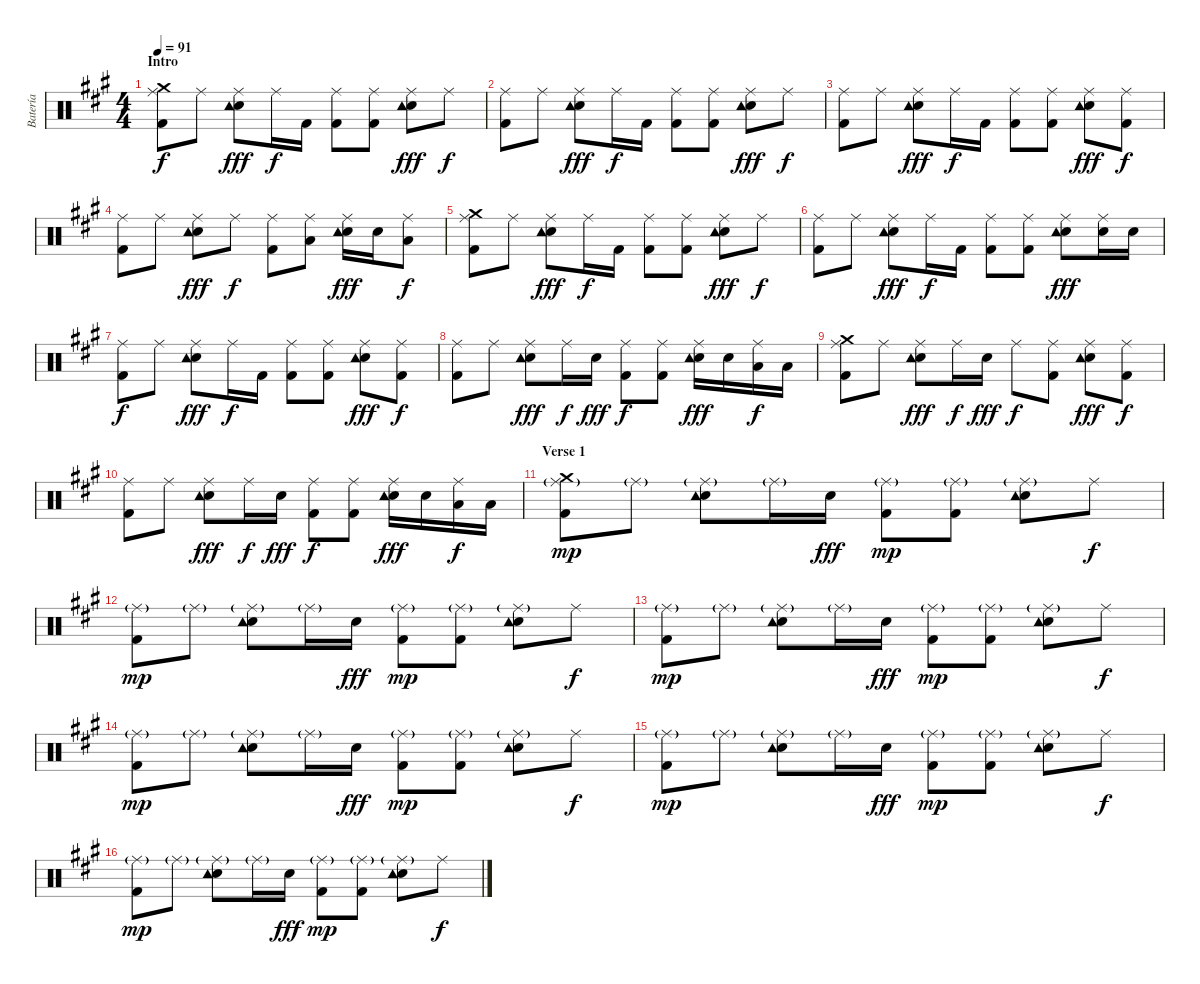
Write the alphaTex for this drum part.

\track ("Batería" "Batería") {instrument percussion}
\staff {score}
\articulation defaults
\ts (4 4)
\section ("" "Intro")
\tempo 91
\clef neutral
\ks a
("Kick (hit) 2" "Ride (middle)" "Crash medium (hit)").8{dy f} "Ride (middle)".8 ("Electric Snare (hit)" "Ride (middle)" "Tambourine (hit)").8{dy fff} "Ride (middle)".16{dy f} "Kick (hit) 2".16 ("Kick (hit) 2" "Ride (middle)").8 ("Kick (hit) 2" "Ride (middle)").8 ("Electric Snare (hit)" "Ride (middle)" "Tambourine (hit)").8{dy fff} "Ride (middle)".8{dy f} |
("Kick (hit) 2" "Ride (middle)").8 "Ride (middle)".8 ("Electric Snare (hit)" "Ride (middle)" "Tambourine (hit)").8{dy fff} "Ride (middle)".16{dy f} "Kick (hit) 2".16 ("Kick (hit) 2" "Ride (middle)").8 ("Kick (hit) 2" "Ride (middle)").8 ("Electric Snare (hit)" "Ride (middle)" "Tambourine (hit)").8{dy fff} "Ride (middle)".8{dy f} |
("Kick (hit) 2" "Ride (middle)").8 "Ride (middle)".8 ("Electric Snare (hit)" "Ride (middle)" "Tambourine (hit)").8{dy fff} "Ride (middle)".16{dy f} "Kick (hit) 2".16 ("Kick (hit) 2" "Ride (middle)").8 ("Kick (hit) 2" "Ride (middle)").8 ("Electric Snare (hit)" "Ride (middle)" "Tambourine (hit)").8{dy fff} ("Kick (hit) 2" "Ride (middle)").8{dy f} |
("Kick (hit) 2" "Ride (middle)").8 "Ride (middle)".8 ("Electric Snare (hit)" "Ride (middle)" "Tambourine (hit)").8{dy fff} "Ride (middle)".8{dy f} ("Kick (hit) 2" "Ride (middle)").8 ("Ride (middle)" "Low Tom (hit)").8 ("Electric Snare (hit)" "Ride (middle)" "Tambourine (hit)").16{dy fff} "Electric Snare (hit)".16 ("Ride (middle)" "Low Tom (hit)").8{dy f} |
("Kick (hit) 2" "Ride (middle)" "Crash medium (hit)").8 "Ride (middle)".8 ("Electric Snare (hit)" "Ride (middle)" "Tambourine (hit)").8{dy fff} "Ride (middle)".16{dy f} "Kick (hit) 2".16 ("Kick (hit) 2" "Ride (middle)").8 ("Kick (hit) 2" "Ride (middle)").8 ("Electric Snare (hit)" "Ride (middle)" "Tambourine (hit)").8{dy fff} "Ride (middle)".8{dy f} |
("Kick (hit) 2" "Ride (middle)").8 "Ride (middle)".8 ("Electric Snare (hit)" "Ride (middle)" "Tambourine (hit)").8{dy fff} "Ride (middle)".16{dy f} "Kick (hit) 2".16 ("Kick (hit) 2" "Ride (middle)").8 ("Kick (hit) 2" "Ride (middle)").8 ("Electric Snare (hit)" "Ride (middle)" "Tambourine (hit)").8{dy fff} ("Electric Snare (hit)" "Ride (middle)").16 "Electric Snare (hit)".16 |
("Kick (hit) 2" "Ride (middle)").8{dy f} "Ride (middle)".8 ("Electric Snare (hit)" "Ride (middle)" "Tambourine (hit)").8{dy fff} "Ride (middle)".16{dy f} "Kick (hit) 2".16 ("Kick (hit) 2" "Ride (middle)").8 ("Kick (hit) 2" "Ride (middle)").8 ("Electric Snare (hit)" "Ride (middle)" "Tambourine (hit)").8{dy fff} ("Kick (hit) 2" "Ride (middle)").8{dy f} |
("Kick (hit) 2" "Ride (middle)").8 "Ride (middle)".8 ("Electric Snare (hit)" "Ride (middle)" "Tambourine (hit)").8{dy fff} "Ride (middle)".16{dy f} "Electric Snare (hit)".16{dy fff} ("Kick (hit) 2" "Ride (middle)").8{dy f} ("Kick (hit) 2" "Ride (middle)").8 ("Electric Snare (hit)" "Ride (middle)" "Tambourine (hit)").16{dy fff} "Electric Snare (hit)".16 ("Ride (middle)" "Low Tom (hit)").16{dy f} "Low Tom (hit)".16 |
("Kick (hit) 2" "Ride (middle)" "Crash medium (hit)").8 "Ride (middle)".8 ("Electric Snare (hit)" "Ride (middle)" "Tambourine (hit)").8{dy fff} "Ride (middle)".16{dy f} "Electric Snare (hit)".16{dy fff} "Ride (middle)".8{dy f} ("Kick (hit) 2" "Ride (middle)").8 ("Electric Snare (hit)" "Ride (middle)" "Tambourine (hit)").8{dy fff} ("Kick (hit) 2" "Ride (middle)").8{dy f} |
("Kick (hit) 2" "Ride (middle)").8 "Ride (middle)".8 ("Electric Snare (hit)" "Ride (middle)" "Tambourine (hit)").8{dy fff} "Ride (middle)".16{dy f} "Electric Snare (hit)".16{dy fff} ("Kick (hit) 2" "Ride (middle)").8{dy f} ("Kick (hit) 2" "Ride (middle)").8 ("Electric Snare (hit)" "Ride (middle)" "Tambourine (hit)").16{dy fff} "Electric Snare (hit)".16 ("Ride (middle)" "Low Tom (hit)").16{dy f} "Low Tom (hit)".16 |
\section ("" "Verse 1")
("Kick (hit) 2" "Ride (middle)"{g} "Crash medium (hit)").8{dy mp} "Ride (middle)"{g}.8 ("Electric Snare (hit)" "Ride (middle)"{g} "Tambourine (hit)").8 "Ride (middle)"{g}.16 "Electric Snare (hit)".16{dy fff} ("Kick (hit) 2" "Ride (middle)"{g}).8{dy mp} ("Kick (hit) 2" "Ride (middle)"{g}).8 ("Electric Snare (hit)" "Ride (middle)"{g} "Tambourine (hit)").8 "Ride (middle)".8{dy f} |
("Kick (hit) 2" "Ride (middle)"{g}).8{dy mp} "Ride (middle)"{g}.8 ("Electric Snare (hit)" "Ride (middle)"{g} "Tambourine (hit)").8 "Ride (middle)"{g}.16 "Electric Snare (hit)".16{dy fff} ("Kick (hit) 2" "Ride (middle)"{g}).8{dy mp} ("Kick (hit) 2" "Ride (middle)"{g}).8 ("Electric Snare (hit)" "Ride (middle)"{g} "Tambourine (hit)").8 "Ride (middle)".8{dy f} |
("Kick (hit) 2" "Ride (middle)"{g}).8{dy mp} "Ride (middle)"{g}.8 ("Electric Snare (hit)" "Ride (middle)"{g} "Tambourine (hit)").8 "Ride (middle)"{g}.16 "Electric Snare (hit)".16{dy fff} ("Kick (hit) 2" "Ride (middle)"{g}).8{dy mp} ("Kick (hit) 2" "Ride (middle)"{g}).8 ("Electric Snare (hit)" "Ride (middle)"{g} "Tambourine (hit)").8 "Ride (middle)".8{dy f} |
("Kick (hit) 2" "Ride (middle)"{g}).8{dy mp} "Ride (middle)"{g}.8 ("Electric Snare (hit)" "Ride (middle)"{g} "Tambourine (hit)").8 "Ride (middle)"{g}.16 "Electric Snare (hit)".16{dy fff} ("Kick (hit) 2" "Ride (middle)"{g}).8{dy mp} ("Kick (hit) 2" "Ride (middle)"{g}).8 ("Electric Snare (hit)" "Ride (middle)"{g} "Tambourine (hit)").8 "Ride (middle)".8{dy f} |
("Kick (hit) 2" "Ride (middle)"{g}).8{dy mp} "Ride (middle)"{g}.8 ("Electric Snare (hit)" "Ride (middle)"{g} "Tambourine (hit)").8 "Ride (middle)"{g}.16 "Electric Snare (hit)".16{dy fff} ("Kick (hit) 2" "Ride (middle)"{g}).8{dy mp} ("Kick (hit) 2" "Ride (middle)"{g}).8 ("Electric Snare (hit)" "Ride (middle)"{g} "Tambourine (hit)").8 "Ride (middle)".8{dy f} |
("Kick (hit) 2" "Ride (middle)"{g}).8{dy mp} "Ride (middle)"{g}.8 ("Electric Snare (hit)" "Ride (middle)"{g} "Tambourine (hit)").8 "Ride (middle)"{g}.16 "Electric Snare (hit)".16{dy fff} ("Kick (hit) 2" "Ride (middle)"{g}).8{dy mp} ("Kick (hit) 2" "Ride (middle)"{g}).8 ("Electric Snare (hit)" "Ride (middle)"{g} "Tambourine (hit)").8 "Ride (middle)".8{dy f}
